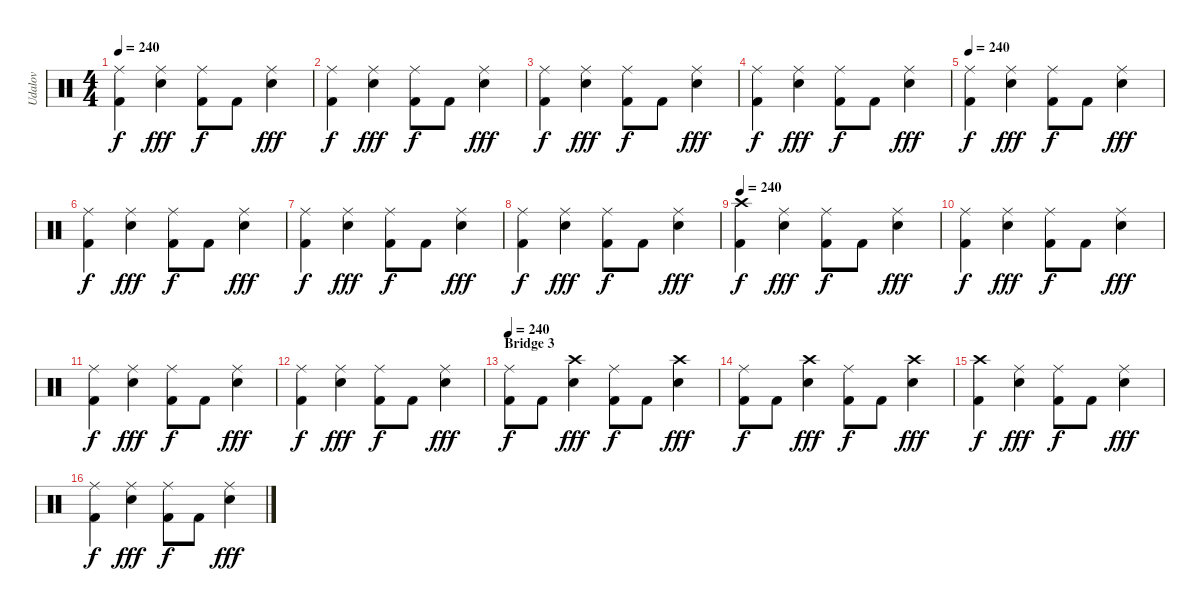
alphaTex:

\track ("Udalov" "Udalov") {instrument percussion}
\staff {score}
\articulation defaults
\ts (4 4)
\tempo 240
\clef neutral
\ks c
("Ride (middle)" "Kick (hit) 2").4{dy f} ("Ride (middle)" "Electric Snare (hit)").4{dy fff} ("Ride (middle)" "Kick (hit) 2").8{dy f} "Kick (hit) 2".8 ("Ride (middle)" "Electric Snare (hit)").4{dy fff} |
("Ride (middle)" "Kick (hit) 2").4{dy f} ("Ride (middle)" "Electric Snare (hit)").4{dy fff} ("Ride (middle)" "Kick (hit) 2").8{dy f} "Kick (hit) 2".8 ("Ride (middle)" "Electric Snare (hit)").4{dy fff} |
("Ride (middle)" "Kick (hit) 2").4{dy f} ("Ride (middle)" "Electric Snare (hit)").4{dy fff} ("Ride (middle)" "Kick (hit) 2").8{dy f} "Kick (hit) 2".8 ("Ride (middle)" "Electric Snare (hit)").4{dy fff} |
("Ride (middle)" "Kick (hit) 2").4{dy f} ("Ride (middle)" "Electric Snare (hit)").4{dy fff} ("Ride (middle)" "Kick (hit) 2").8{dy f} "Kick (hit) 2".8 ("Ride (middle)" "Electric Snare (hit)").4{dy fff} |
\tempo 240
("Ride (middle)" "Kick (hit) 2").4{dy f} ("Ride (middle)" "Electric Snare (hit)").4{dy fff} ("Ride (middle)" "Kick (hit) 2").8{dy f} "Kick (hit) 2".8 ("Ride (middle)" "Electric Snare (hit)").4{dy fff} |
("Ride (middle)" "Kick (hit) 2").4{dy f} ("Ride (middle)" "Electric Snare (hit)").4{dy fff} ("Ride (middle)" "Kick (hit) 2").8{dy f} "Kick (hit) 2".8 ("Ride (middle)" "Electric Snare (hit)").4{dy fff} |
("Ride (middle)" "Kick (hit) 2").4{dy f} ("Ride (middle)" "Electric Snare (hit)").4{dy fff} ("Ride (middle)" "Kick (hit) 2").8{dy f} "Kick (hit) 2".8 ("Ride (middle)" "Electric Snare (hit)").4{dy fff} |
("Ride (middle)" "Kick (hit) 2").4{dy f} ("Ride (middle)" "Electric Snare (hit)").4{dy fff} ("Ride (middle)" "Kick (hit) 2").8{dy f} "Kick (hit) 2".8 ("Ride (middle)" "Electric Snare (hit)").4{dy fff} |
\tempo 240
("Crash high (hit)" "Kick (hit) 2").4{dy f} ("Ride (middle)" "Electric Snare (hit)").4{dy fff} ("Ride (middle)" "Kick (hit) 2").8{dy f} "Kick (hit) 2".8 ("Ride (middle)" "Electric Snare (hit)").4{dy fff} |
("Ride (middle)" "Kick (hit) 2").4{dy f} ("Ride (middle)" "Electric Snare (hit)").4{dy fff} ("Ride (middle)" "Kick (hit) 2").8{dy f} "Kick (hit) 2".8 ("Ride (middle)" "Electric Snare (hit)").4{dy fff} |
("Ride (middle)" "Kick (hit) 2").4{dy f} ("Ride (middle)" "Electric Snare (hit)").4{dy fff} ("Ride (middle)" "Kick (hit) 2").8{dy f} "Kick (hit) 2".8 ("Ride (middle)" "Electric Snare (hit)").4{dy fff} |
("Ride (middle)" "Kick (hit) 2").4{dy f} ("Ride (middle)" "Electric Snare (hit)").4{dy fff} ("Ride (middle)" "Kick (hit) 2").8{dy f} "Kick (hit) 2".8 ("Ride (middle)" "Electric Snare (hit)").4{dy fff} |
\section ("" "Bridge 3")
\tempo 240
("Ride (middle)" "Kick (hit) 2").8{dy f} "Kick (hit) 2".8 ("Crash high (hit)" "Electric Snare (hit)").4{dy fff} ("Ride (middle)" "Kick (hit) 2").8{dy f} "Kick (hit) 2".8 ("Crash high (hit)" "Electric Snare (hit)").4{dy fff} |
("Ride (middle)" "Kick (hit) 2").8{dy f} "Kick (hit) 2".8 ("Crash high (hit)" "Electric Snare (hit)").4{dy fff} ("Ride (middle)" "Kick (hit) 2").8{dy f} "Kick (hit) 2".8 ("Crash high (hit)" "Electric Snare (hit)").4{dy fff} |
("Crash high (hit)" "Kick (hit) 2").4{dy f} ("Ride (middle)" "Electric Snare (hit)").4{dy fff} ("Ride (middle)" "Kick (hit) 2").8{dy f} "Kick (hit) 2".8 ("Ride (middle)" "Electric Snare (hit)").4{dy fff} |
("Ride (middle)" "Kick (hit) 2").4{dy f} ("Ride (middle)" "Electric Snare (hit)").4{dy fff} ("Ride (middle)" "Kick (hit) 2").8{dy f} "Kick (hit) 2".8 ("Ride (middle)" "Electric Snare (hit)").4{dy fff}
